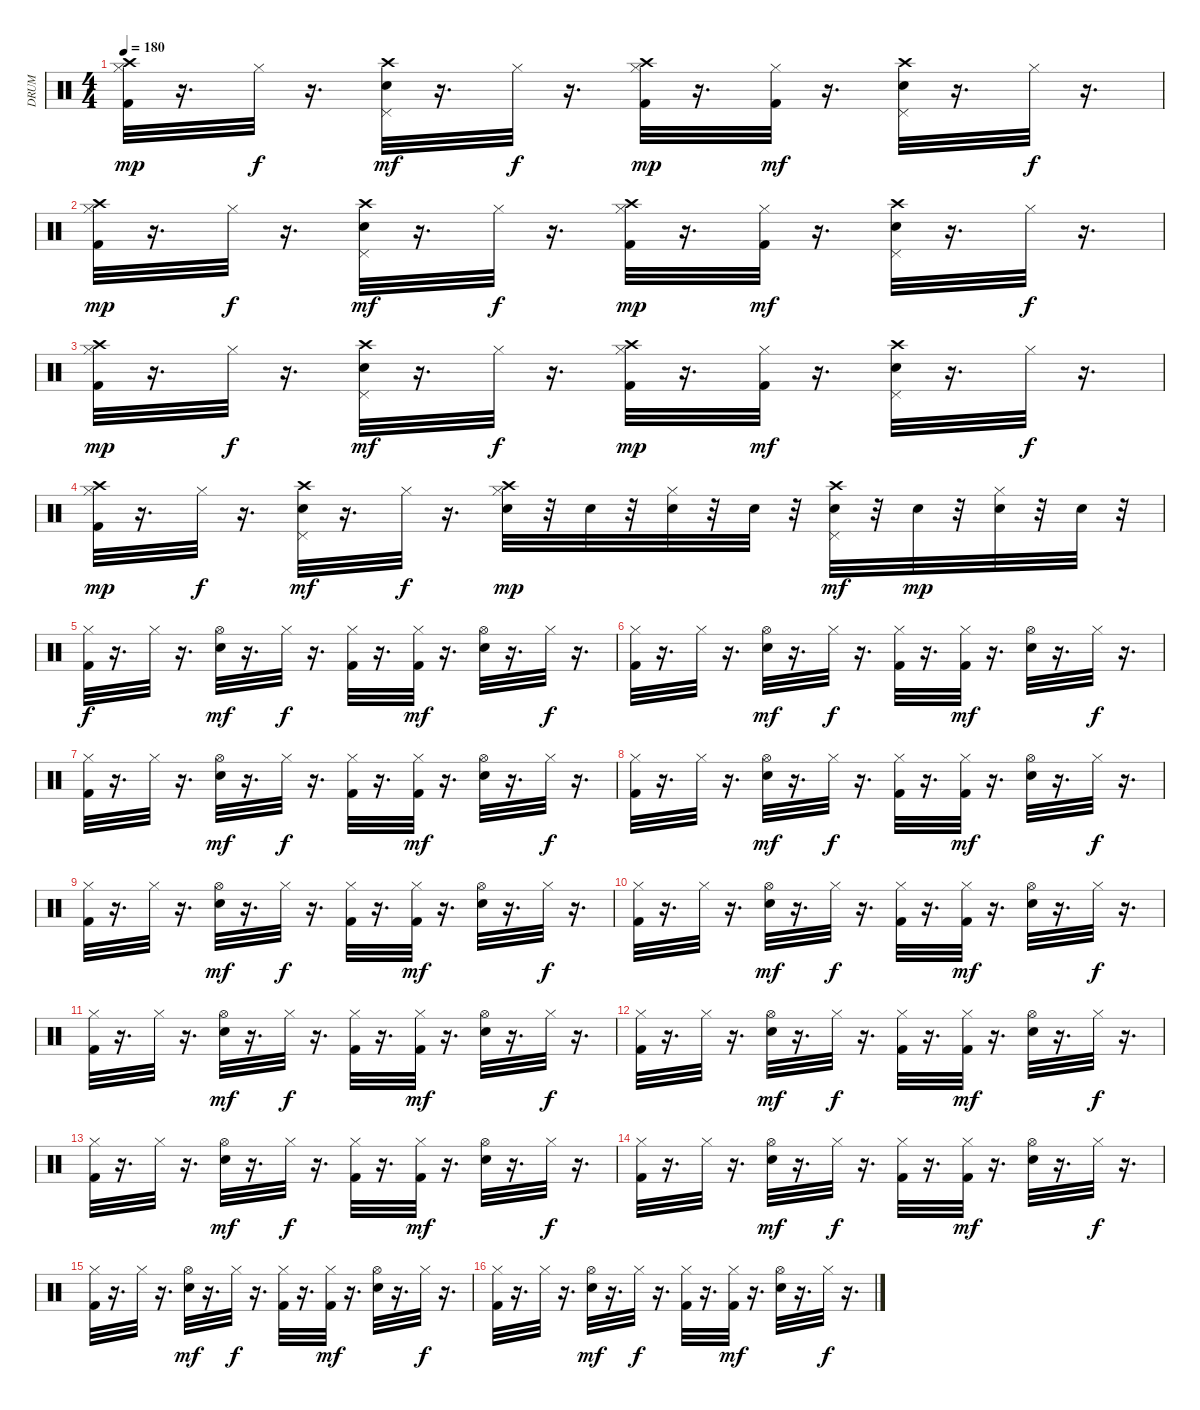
\track ("DRUM" "DRUM") {instrument percussion}
\staff {score}
\articulation defaults
\ts (4 4)
\tempo 180
\clef neutral
\ks c
("Crash high (hit)" "Hi-Hat (closed)" "Kick (hit) 2").32{dy mp} r.16{d} "Hi-Hat (closed)".32{dy f} r.16{d} ("Crash high (hit)" "Snare (hit) 2" "Pedal Hi-Hat (hit)").32{dy mf} r.16{d} "Hi-Hat (closed)".32{dy f} r.16{d} ("Crash high (hit)" "Kick (hit) 2" "Hi-Hat (closed)").32{dy mp} r.16{d} ("Hi-Hat (closed)" "Kick (hit) 2").32{dy mf} r.16{d} ("Crash high (hit)" "Pedal Hi-Hat (hit)" "Snare (hit) 2").32 r.16{d} "Hi-Hat (closed)".32{dy f} r.16{d} |
("Crash high (hit)" "Hi-Hat (closed)" "Kick (hit) 2").32{dy mp} r.16{d} "Hi-Hat (closed)".32{dy f} r.16{d} ("Crash high (hit)" "Snare (hit) 2" "Pedal Hi-Hat (hit)").32{dy mf} r.16{d} "Hi-Hat (closed)".32{dy f} r.16{d} ("Crash high (hit)" "Kick (hit) 2" "Hi-Hat (closed)").32{dy mp} r.16{d} ("Hi-Hat (closed)" "Kick (hit) 2").32{dy mf} r.16{d} ("Crash high (hit)" "Pedal Hi-Hat (hit)" "Snare (hit) 2").32 r.16{d} "Hi-Hat (closed)".32{dy f} r.16{d} |
("Crash high (hit)" "Kick (hit) 2" "Hi-Hat (closed)").32{dy mp} r.16{d} "Hi-Hat (closed)".32{dy f} r.16{d} ("Crash high (hit)" "Snare (hit) 2" "Pedal Hi-Hat (hit)").32{dy mf} r.16{d} "Hi-Hat (closed)".32{dy f} r.16{d} ("Crash high (hit)" "Hi-Hat (closed)" "Kick (hit) 2").32{dy mp} r.16{d} ("Kick (hit) 2" "Hi-Hat (closed)").32{dy mf} r.16{d} ("Crash high (hit)" "Snare (hit) 2" "Pedal Hi-Hat (hit)").32 r.16{d} "Hi-Hat (closed)".32{dy f} r.16{d} |
("Crash high (hit)" "Hi-Hat (closed)" "Kick (hit) 2").32{dy mp} r.16{d} "Hi-Hat (closed)".32{dy f} r.16{d} ("Crash high (hit)" "Pedal Hi-Hat (hit)" "Snare (hit) 2").32{dy mf} r.16{d} "Hi-Hat (closed)".32{dy f} r.16{d} ("Crash high (hit)" "Snare (hit) 2" "Hi-Hat (closed)").32{dy mp} r.32 "Snare (hit) 2".32 r.32 ("Snare (hit) 2" "Hi-Hat (closed)").32 r.32 "Snare (hit) 2".32 r.32 ("Crash high (hit)" "Pedal Hi-Hat (hit)" "Snare (hit) 2").32{dy mf} r.32 "Snare (hit) 2".32{dy mp} r.32 ("Snare (hit) 2" "Hi-Hat (closed)").32 r.32 "Snare (hit) 2".32 r.32 |
("Hi-Hat (closed)" "Kick (hit) 2").32{dy f} r.16{d} "Hi-Hat (closed)".32 r.16{d} ("Hi-Hat (open)" "Snare (hit) 2").32{dy mf} r.16{d} "Hi-Hat (closed)".32{dy f} r.16{d} ("Hi-Hat (closed)" "Kick (hit) 2").32 r.16{d} ("Hi-Hat (closed)" "Kick (hit) 2").32{dy mf} r.16{d} ("Hi-Hat (open)" "Snare (hit) 2").32 r.16{d} "Hi-Hat (closed)".32{dy f} r.16{d} |
("Kick (hit) 2" "Hi-Hat (closed)").32 r.16{d} "Hi-Hat (closed)".32 r.16{d} ("Hi-Hat (open)" "Snare (hit) 2").32{dy mf} r.16{d} "Hi-Hat (closed)".32{dy f} r.16{d} ("Kick (hit) 2" "Hi-Hat (closed)").32 r.16{d} ("Hi-Hat (closed)" "Kick (hit) 2").32{dy mf} r.16{d} ("Snare (hit) 2" "Hi-Hat (open)").32 r.16{d} "Hi-Hat (closed)".32{dy f} r.16{d} |
("Hi-Hat (closed)" "Kick (hit) 2").32 r.16{d} "Hi-Hat (closed)".32 r.16{d} ("Hi-Hat (open)" "Snare (hit) 2").32{dy mf} r.16{d} "Hi-Hat (closed)".32{dy f} r.16{d} ("Kick (hit) 2" "Hi-Hat (closed)").32 r.16{d} ("Kick (hit) 2" "Hi-Hat (closed)").32{dy mf} r.16{d} ("Snare (hit) 2" "Hi-Hat (open)").32 r.16{d} "Hi-Hat (closed)".32{dy f} r.16{d} |
("Hi-Hat (closed)" "Kick (hit) 2").32 r.16{d} "Hi-Hat (closed)".32 r.16{d} ("Hi-Hat (open)" "Snare (hit) 2").32{dy mf} r.16{d} "Hi-Hat (closed)".32{dy f} r.16{d} ("Kick (hit) 2" "Hi-Hat (closed)").32 r.16{d} ("Hi-Hat (closed)" "Kick (hit) 2").32{dy mf} r.16{d} ("Hi-Hat (open)" "Snare (hit) 2").32 r.16{d} "Hi-Hat (closed)".32{dy f} r.16{d} |
("Kick (hit) 2" "Hi-Hat (closed)").32 r.16{d} "Hi-Hat (closed)".32 r.16{d} ("Snare (hit) 2" "Hi-Hat (open)").32{dy mf} r.16{d} "Hi-Hat (closed)".32{dy f} r.16{d} ("Kick (hit) 2" "Hi-Hat (closed)").32 r.16{d} ("Kick (hit) 2" "Hi-Hat (closed)").32{dy mf} r.16{d} ("Snare (hit) 2" "Hi-Hat (open)").32 r.16{d} "Hi-Hat (closed)".32{dy f} r.16{d} |
("Hi-Hat (closed)" "Kick (hit) 2").32 r.16{d} "Hi-Hat (closed)".32 r.16{d} ("Hi-Hat (open)" "Snare (hit) 2").32{dy mf} r.16{d} "Hi-Hat (closed)".32{dy f} r.16{d} ("Kick (hit) 2" "Hi-Hat (closed)").32 r.16{d} ("Kick (hit) 2" "Hi-Hat (closed)").32{dy mf} r.16{d} ("Hi-Hat (open)" "Snare (hit) 2").32 r.16{d} "Hi-Hat (closed)".32{dy f} r.16{d} |
("Hi-Hat (closed)" "Kick (hit) 2").32 r.16{d} "Hi-Hat (closed)".32 r.16{d} ("Hi-Hat (open)" "Snare (hit) 2").32{dy mf} r.16{d} "Hi-Hat (closed)".32{dy f} r.16{d} ("Hi-Hat (closed)" "Kick (hit) 2").32 r.16{d} ("Hi-Hat (closed)" "Kick (hit) 2").32{dy mf} r.16{d} ("Hi-Hat (open)" "Snare (hit) 2").32 r.16{d} "Hi-Hat (closed)".32{dy f} r.16{d} |
("Hi-Hat (closed)" "Kick (hit) 2").32 r.16{d} "Hi-Hat (closed)".32 r.16{d} ("Hi-Hat (open)" "Snare (hit) 2").32{dy mf} r.16{d} "Hi-Hat (closed)".32{dy f} r.16{d} ("Kick (hit) 2" "Hi-Hat (closed)").32 r.16{d} ("Kick (hit) 2" "Hi-Hat (closed)").32{dy mf} r.16{d} ("Snare (hit) 2" "Hi-Hat (open)").32 r.16{d} "Hi-Hat (closed)".32{dy f} r.16{d} |
("Hi-Hat (closed)" "Kick (hit) 2").32 r.16{d} "Hi-Hat (closed)".32 r.16{d} ("Snare (hit) 2" "Hi-Hat (open)").32{dy mf} r.16{d} "Hi-Hat (closed)".32{dy f} r.16{d} ("Hi-Hat (closed)" "Kick (hit) 2").32 r.16{d} ("Hi-Hat (closed)" "Kick (hit) 2").32{dy mf} r.16{d} ("Hi-Hat (open)" "Snare (hit) 2").32 r.16{d} "Hi-Hat (closed)".32{dy f} r.16{d} |
("Kick (hit) 2" "Hi-Hat (closed)").32 r.16{d} "Hi-Hat (closed)".32 r.16{d} ("Hi-Hat (open)" "Snare (hit) 2").32{dy mf} r.16{d} "Hi-Hat (closed)".32{dy f} r.16{d} ("Hi-Hat (closed)" "Kick (hit) 2").32 r.16{d} ("Hi-Hat (closed)" "Kick (hit) 2").32{dy mf} r.16{d} ("Snare (hit) 2" "Hi-Hat (open)").32 r.16{d} "Hi-Hat (closed)".32{dy f} r.16{d} |
("Kick (hit) 2" "Hi-Hat (closed)").32 r.16{d} "Hi-Hat (closed)".32 r.16{d} ("Snare (hit) 2" "Hi-Hat (open)").32{dy mf} r.16{d} "Hi-Hat (closed)".32{dy f} r.16{d} ("Hi-Hat (closed)" "Kick (hit) 2").32 r.16{d} ("Hi-Hat (closed)" "Kick (hit) 2").32{dy mf} r.16{d} ("Hi-Hat (open)" "Snare (hit) 2").32 r.16{d} "Hi-Hat (closed)".32{dy f} r.16{d} |
("Hi-Hat (closed)" "Kick (hit) 2").32 r.16{d} "Hi-Hat (closed)".32 r.16{d} ("Hi-Hat (open)" "Snare (hit) 2").32{dy mf} r.16{d} "Hi-Hat (closed)".32{dy f} r.16{d} ("Kick (hit) 2" "Hi-Hat (closed)").32 r.16{d} ("Hi-Hat (closed)" "Kick (hit) 2").32{dy mf} r.16{d} ("Snare (hit) 2" "Hi-Hat (open)").32 r.16{d} "Hi-Hat (closed)".32{dy f} r.16{d}
